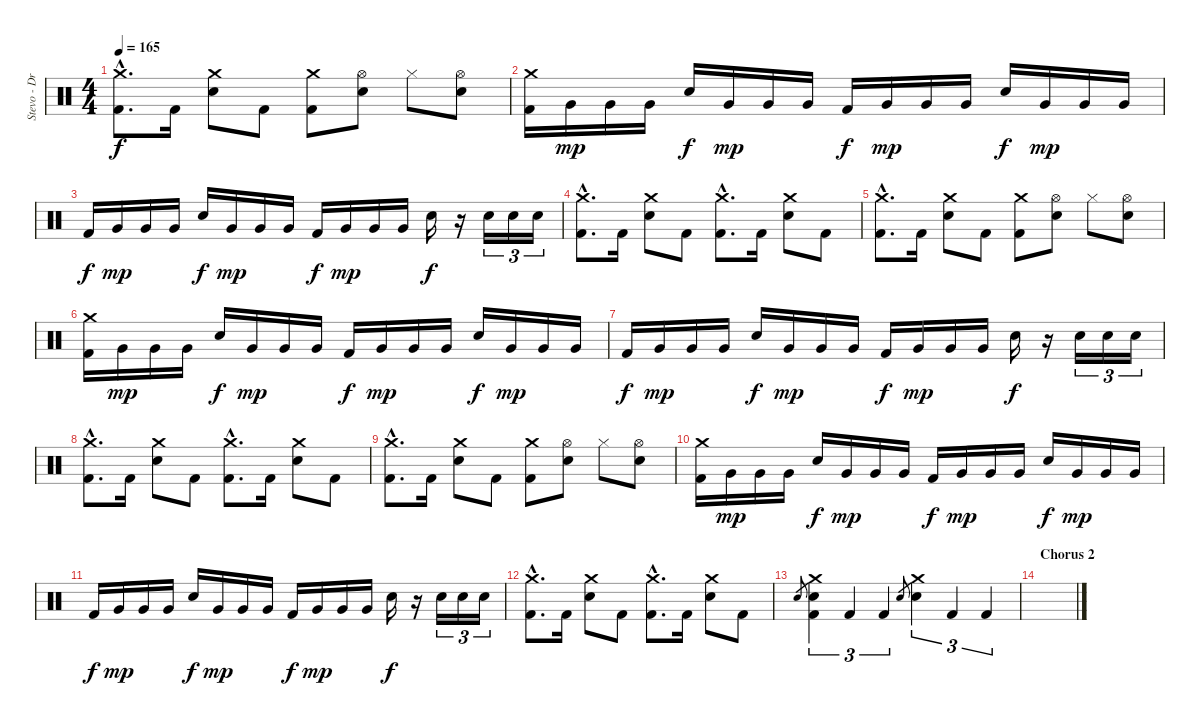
\track ("Stevo - Drums" "Stevo - Dr") {instrument percussion}
\staff {score}
\articulation defaults
\ts (4 4)
\tempo 165
\clef neutral
\ks c
("Crash medium (hit)"{hac} "Kick (hit) 2"{hac}).8{d dy f} "Kick (hit) 2".16 ("Crash medium (hit)" "Electric Snare (hit)").8 "Kick (hit) 2".8 ("Crash medium (hit)" "Kick (hit) 2").8 ("Hi-Hat (open)" "Electric Snare (hit)").8 "Hi-Hat (closed)".8 ("Hi-Hat (open)" "Electric Snare (hit)").8 |
("Crash medium (hit)" "Kick (hit) 2").16 "Very Low Tom (hit)".16{dy mp} "Very Low Tom (hit)".16 "Very Low Tom (hit)".16 "Electric Snare (hit)".16{dy f} "Very Low Tom (hit)".16{dy mp} "Very Low Tom (hit)".16 "Very Low Tom (hit)".16 "Kick (hit) 2".16{dy f} "Very Low Tom (hit)".16{dy mp} "Very Low Tom (hit)".16 "Very Low Tom (hit)".16 "Electric Snare (hit)".16{dy f} "Very Low Tom (hit)".16{dy mp} "Very Low Tom (hit)".16 "Very Low Tom (hit)".16 |
"Kick (hit) 2".16{dy f} "Very Low Tom (hit)".16{dy mp} "Very Low Tom (hit)".16 "Very Low Tom (hit)".16 "Electric Snare (hit)".16{dy f} "Very Low Tom (hit)".16{dy mp} "Very Low Tom (hit)".16 "Very Low Tom (hit)".16 "Kick (hit) 2".16{dy f} "Very Low Tom (hit)".16{dy mp} "Very Low Tom (hit)".16 "Very Low Tom (hit)".16 "Electric Snare (hit)".16{dy f} r.16 "Electric Snare (hit)".16{tu (3 2)} "Electric Snare (hit)".16{tu (3 2)} "Electric Snare (hit)".16{tu (3 2)} |
("Crash medium (hit)"{hac} "Kick (hit) 2"{hac}).8{d} "Kick (hit) 2".16 ("Crash medium (hit)" "Electric Snare (hit)").8 "Kick (hit) 2".8 ("Crash medium (hit)"{hac} "Kick (hit) 2"{hac}).8{d} "Kick (hit) 2".16 ("Crash medium (hit)" "Electric Snare (hit)").8 "Kick (hit) 2".8 |
("Crash medium (hit)"{hac} "Kick (hit) 2"{hac}).8{d} "Kick (hit) 2".16 ("Crash medium (hit)" "Electric Snare (hit)").8 "Kick (hit) 2".8 ("Crash medium (hit)" "Kick (hit) 2").8 ("Hi-Hat (open)" "Electric Snare (hit)").8 "Hi-Hat (closed)".8 ("Hi-Hat (open)" "Electric Snare (hit)").8 |
("Crash medium (hit)" "Kick (hit) 2").16 "Very Low Tom (hit)".16{dy mp} "Very Low Tom (hit)".16 "Very Low Tom (hit)".16 "Electric Snare (hit)".16{dy f} "Very Low Tom (hit)".16{dy mp} "Very Low Tom (hit)".16 "Very Low Tom (hit)".16 "Kick (hit) 2".16{dy f} "Very Low Tom (hit)".16{dy mp} "Very Low Tom (hit)".16 "Very Low Tom (hit)".16 "Electric Snare (hit)".16{dy f} "Very Low Tom (hit)".16{dy mp} "Very Low Tom (hit)".16 "Very Low Tom (hit)".16 |
"Kick (hit) 2".16{dy f} "Very Low Tom (hit)".16{dy mp} "Very Low Tom (hit)".16 "Very Low Tom (hit)".16 "Electric Snare (hit)".16{dy f} "Very Low Tom (hit)".16{dy mp} "Very Low Tom (hit)".16 "Very Low Tom (hit)".16 "Kick (hit) 2".16{dy f} "Very Low Tom (hit)".16{dy mp} "Very Low Tom (hit)".16 "Very Low Tom (hit)".16 "Electric Snare (hit)".16{dy f} r.16 "Electric Snare (hit)".16{tu (3 2)} "Electric Snare (hit)".16{tu (3 2)} "Electric Snare (hit)".16{tu (3 2)} |
("Crash medium (hit)"{hac} "Kick (hit) 2"{hac}).8{d} "Kick (hit) 2".16 ("Crash medium (hit)" "Electric Snare (hit)").8 "Kick (hit) 2".8 ("Crash medium (hit)"{hac} "Kick (hit) 2"{hac}).8{d} "Kick (hit) 2".16 ("Crash medium (hit)" "Electric Snare (hit)").8 "Kick (hit) 2".8 |
("Crash medium (hit)"{hac} "Kick (hit) 2"{hac}).8{d} "Kick (hit) 2".16 ("Crash medium (hit)" "Electric Snare (hit)").8 "Kick (hit) 2".8 ("Crash medium (hit)" "Kick (hit) 2").8 ("Hi-Hat (open)" "Electric Snare (hit)").8 "Hi-Hat (closed)".8 ("Hi-Hat (open)" "Electric Snare (hit)").8 |
("Crash medium (hit)" "Kick (hit) 2").16 "Very Low Tom (hit)".16{dy mp} "Very Low Tom (hit)".16 "Very Low Tom (hit)".16 "Electric Snare (hit)".16{dy f} "Very Low Tom (hit)".16{dy mp} "Very Low Tom (hit)".16 "Very Low Tom (hit)".16 "Kick (hit) 2".16{dy f} "Very Low Tom (hit)".16{dy mp} "Very Low Tom (hit)".16 "Very Low Tom (hit)".16 "Electric Snare (hit)".16{dy f} "Very Low Tom (hit)".16{dy mp} "Very Low Tom (hit)".16 "Very Low Tom (hit)".16 |
"Kick (hit) 2".16{dy f} "Very Low Tom (hit)".16{dy mp} "Very Low Tom (hit)".16 "Very Low Tom (hit)".16 "Electric Snare (hit)".16{dy f} "Very Low Tom (hit)".16{dy mp} "Very Low Tom (hit)".16 "Very Low Tom (hit)".16 "Kick (hit) 2".16{dy f} "Very Low Tom (hit)".16{dy mp} "Very Low Tom (hit)".16 "Very Low Tom (hit)".16 "Electric Snare (hit)".16{dy f} r.16 "Electric Snare (hit)".16{tu (3 2)} "Electric Snare (hit)".16{tu (3 2)} "Electric Snare (hit)".16{tu (3 2)} |
("Crash medium (hit)"{hac} "Kick (hit) 2"{hac}).8{d} "Kick (hit) 2".16 ("Crash medium (hit)" "Electric Snare (hit)").8 "Kick (hit) 2".8 ("Crash medium (hit)"{hac} "Kick (hit) 2"{hac}).8{d} "Kick (hit) 2".16 ("Crash medium (hit)" "Electric Snare (hit)").8 "Kick (hit) 2".8 |
"Electric Snare (hit)".8{gr} ("Crash medium (hit)" "Electric Snare (hit)" "Kick (hit) 2").4{tu (3 2)} "Kick (hit) 2".4{tu (3 2)} "Kick (hit) 2".4{tu (3 2)} "Electric Snare (hit)".8{gr} ("Crash medium (hit)" "Electric Snare (hit)").4{tu (3 2)} "Kick (hit) 2".4{tu (3 2)} "Kick (hit) 2".4{tu (3 2)} |
\section ("" "Chorus 2")
